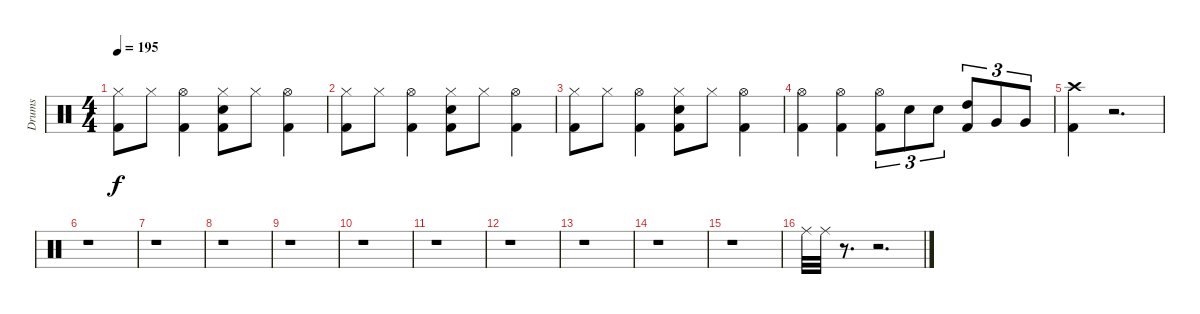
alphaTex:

\track ("Drums" "Drums") {instrument percussion}
\staff {score}
\articulation defaults
\ts (4 4)
\tempo 195
\clef neutral
\ks c
("Hi-Hat (closed)" "Kick (hit) 2").8{dy f} "Hi-Hat (closed)".8 ("Hi-Hat (open)" "Kick (hit) 2").4 ("Hi-Hat (closed)" "Snare (hit) 2" "Kick (hit) 2").8 "Hi-Hat (closed)".8 ("Hi-Hat (open)" "Kick (hit) 2").4 |
("Hi-Hat (closed)" "Kick (hit) 2").8 "Hi-Hat (closed)".8 ("Hi-Hat (open)" "Kick (hit) 2").4 ("Hi-Hat (closed)" "Snare (hit) 2" "Kick (hit) 2").8 "Hi-Hat (closed)".8 ("Hi-Hat (open)" "Kick (hit) 2").4 |
("Hi-Hat (closed)" "Kick (hit) 2").8 "Hi-Hat (closed)".8 ("Hi-Hat (open)" "Kick (hit) 2").4 ("Hi-Hat (closed)" "Snare (hit) 2" "Kick (hit) 2").8 "Hi-Hat (closed)".8 ("Hi-Hat (open)" "Kick (hit) 2").4 |
("Hi-Hat (open)" "Kick (hit) 2").4 ("Hi-Hat (open)" "Kick (hit) 2").4 ("Hi-Hat (open)" "Kick (hit) 2").8{tu (3 2)} "Snare (hit) 2".8{tu (3 2)} "Snare (hit) 2".8{tu (3 2)} ("High Tom (hit)" "Kick (hit) 2").8{tu (3 2)} "Very Low Tom (hit)".8{tu (3 2)} "Very Low Tom (hit)".8{tu (3 2)} |
("Crash high (hit)" "Kick (hit) 2").4 r.2{d} |
r.1 |
r.1 |
r.1 |
r.1 |
r.1 |
r.1 |
r.1 |
r.1 |
r.1 |
r.1 |
"Ride (middle)".32 "Ride (middle)".32 r.8{d} r.2{d}
